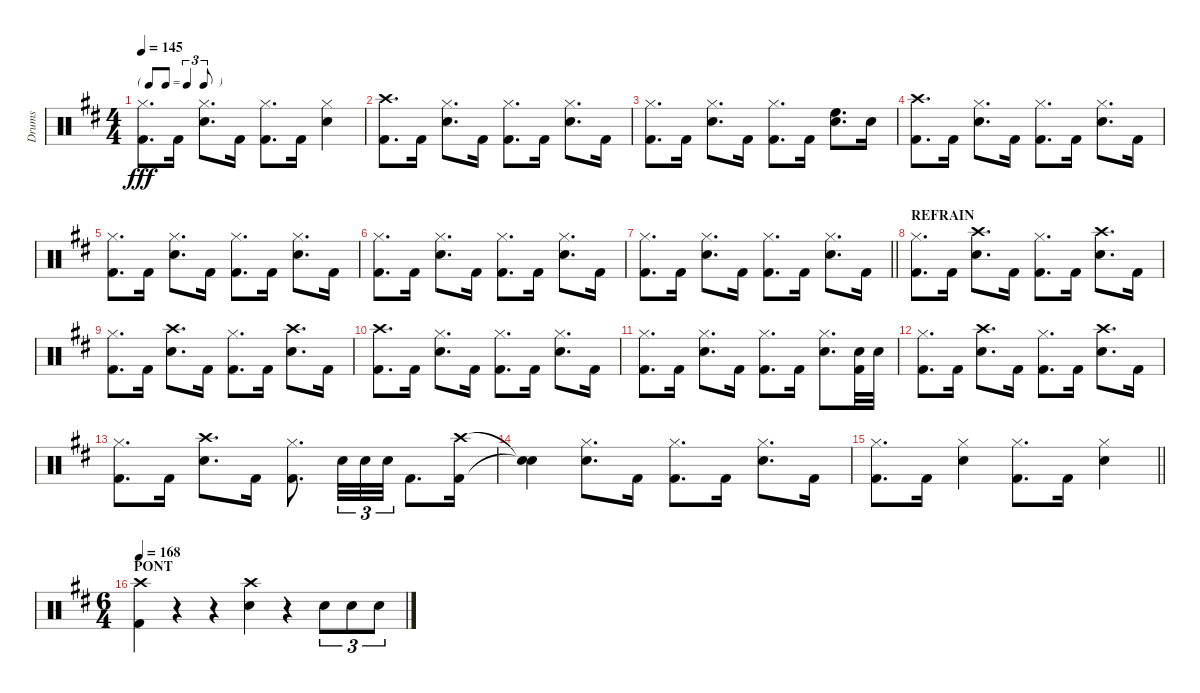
\track ("Drums" "Drums") {instrument percussion}
\staff {score}
\articulation defaults
\ts (4 4)
\tf triplet8th
\tempo 145
\clef neutral
\ks d
("Hi-Hat (closed)" "Kick (hit) 2").8{d dy fff} "Kick (hit) 2".16 ("Hi-Hat (closed)" "Snare (hit) 2").8{d} "Kick (hit) 2".16 ("Hi-Hat (closed)" "Kick (hit) 2").8{d} "Kick (hit) 2".16 ("Hi-Hat (closed)" "Snare (hit) 2").4 |
("Crash high (hit)" "Kick (hit) 2").8{d} "Kick (hit) 2".16 ("Hi-Hat (closed)" "Snare (hit) 2").8{d} "Kick (hit) 2".16 ("Hi-Hat (closed)" "Kick (hit) 2").8{d} "Kick (hit) 2".16 ("Hi-Hat (closed)" "Snare (hit) 2").8{d} "Kick (hit) 2".16 |
("Hi-Hat (closed)" "Kick (hit) 2").8{d} "Kick (hit) 2".16 ("Hi-Hat (closed)" "Snare (hit) 2").8{d} "Kick (hit) 2".16 ("Hi-Hat (closed)" "Kick (hit) 2").8{d} "Kick (hit) 2".16 ("High Floor Tom (hit)" "Snare (hit) 2").8{d} "Snare (hit) 2".16 |
("Crash high (hit)" "Kick (hit) 2").8{d} "Kick (hit) 2".16 ("Hi-Hat (closed)" "Snare (hit) 2").8{d} "Kick (hit) 2".16 ("Hi-Hat (closed)" "Kick (hit) 2").8{d} "Kick (hit) 2".16 ("Hi-Hat (closed)" "Snare (hit) 2").8{d} "Kick (hit) 2".16 |
("Hi-Hat (closed)" "Kick (hit) 2").8{d} "Kick (hit) 2".16 ("Hi-Hat (closed)" "Snare (hit) 2").8{d} "Kick (hit) 2".16 ("Hi-Hat (closed)" "Kick (hit) 2").8{d} "Kick (hit) 2".16 ("Hi-Hat (closed)" "Snare (hit) 2").8{d} "Kick (hit) 2".16 |
("Hi-Hat (closed)" "Kick (hit) 2").8{d} "Kick (hit) 2".16 ("Hi-Hat (closed)" "Snare (hit) 2").8{d} "Kick (hit) 2".16 ("Hi-Hat (closed)" "Kick (hit) 2").8{d} "Kick (hit) 2".16 ("Hi-Hat (closed)" "Snare (hit) 2").8{d} "Kick (hit) 2".16 |
\barLineRight lightlight
("Hi-Hat (closed)" "Kick (hit) 2").8{d} "Kick (hit) 2".16 ("Hi-Hat (closed)" "Snare (hit) 2").8{d} "Kick (hit) 2".16 ("Hi-Hat (closed)" "Kick (hit) 2").8{d} "Kick (hit) 2".16 ("Hi-Hat (closed)" "Snare (hit) 2").8{d} "Kick (hit) 2".16 |
\section ("" "REFRAIN")
("Hi-Hat (closed)" "Kick (hit) 2").8{d} "Kick (hit) 2".16 ("Crash high (hit)" "Snare (hit) 2").8{d} "Kick (hit) 2".16 ("Hi-Hat (closed)" "Kick (hit) 2").8{d} "Kick (hit) 2".16 ("Crash high (hit)" "Snare (hit) 2").8{d} "Kick (hit) 2".16 |
("Hi-Hat (closed)" "Kick (hit) 2").8{d} "Kick (hit) 2".16 ("Crash high (hit)" "Snare (hit) 2").8{d} "Kick (hit) 2".16 ("Hi-Hat (closed)" "Kick (hit) 2").8{d} "Kick (hit) 2".16 ("Crash high (hit)" "Snare (hit) 2").8{d} "Kick (hit) 2".16 |
("Crash high (hit)" "Kick (hit) 2").8{d} "Kick (hit) 2".16 ("Hi-Hat (closed)" "Snare (hit) 2").8{d} "Kick (hit) 2".16 ("Hi-Hat (closed)" "Kick (hit) 2").8{d} "Kick (hit) 2".16 ("Hi-Hat (closed)" "Snare (hit) 2").8{d} "Kick (hit) 2".16 |
("Hi-Hat (closed)" "Kick (hit) 2").8{d} "Kick (hit) 2".16 ("Hi-Hat (closed)" "Snare (hit) 2").8{d} "Kick (hit) 2".16 ("Hi-Hat (closed)" "Kick (hit) 2").8{d} "Kick (hit) 2".16 ("Hi-Hat (closed)" "Snare (hit) 2").8{d} ("Snare (hit) 2" "Kick (hit) 2").32 "Snare (hit) 2".32 |
("Hi-Hat (closed)" "Kick (hit) 2").8{d} "Kick (hit) 2".16 ("Crash high (hit)" "Snare (hit) 2").8{d} "Kick (hit) 2".16 ("Hi-Hat (closed)" "Kick (hit) 2").8{d} "Kick (hit) 2".16 ("Crash high (hit)" "Snare (hit) 2").8{d} "Kick (hit) 2".16 |
("Hi-Hat (closed)" "Kick (hit) 2").8{d} "Kick (hit) 2".16 ("Crash high (hit)" "Snare (hit) 2").8{d} "Kick (hit) 2".16 ("Hi-Hat (closed)" "Kick (hit) 2").8{d} "Snare (hit) 2".32{tu (3 2)} "Snare (hit) 2".32{tu (3 2)} "Snare (hit) 2".32{tu (3 2)} "Kick (hit) 2".8{d} ("Crash high (hit)" "Kick (hit) 2").16 |
("Snare (hit)"{t} "Snare (hit)"{t}).4 ("Hi-Hat (closed)" "Snare (hit) 2").8{d} "Kick (hit) 2".16 ("Hi-Hat (closed)" "Kick (hit) 2").8{d} "Kick (hit) 2".16 ("Hi-Hat (closed)" "Snare (hit) 2").8{d} "Kick (hit) 2".16 |
\barLineRight lightlight
("Hi-Hat (closed)" "Kick (hit) 2").8{d} "Kick (hit) 2".16 ("Hi-Hat (closed)" "Snare (hit) 2").4 ("Hi-Hat (closed)" "Kick (hit) 2").8{d} "Kick (hit) 2".16 ("Hi-Hat (closed)" "Snare (hit) 2").4 |
\ts (6 4)
\section ("" "PONT")
\tempo 168
("Crash high (hit)" "Kick (hit) 2").4 r.4 r.4 ("Crash high (hit)" "Snare (hit) 2").4 r.4 "Snare (hit) 2".8{tu (3 2)} "Snare (hit) 2".8{tu (3 2)} "Snare (hit) 2".8{tu (3 2)}
